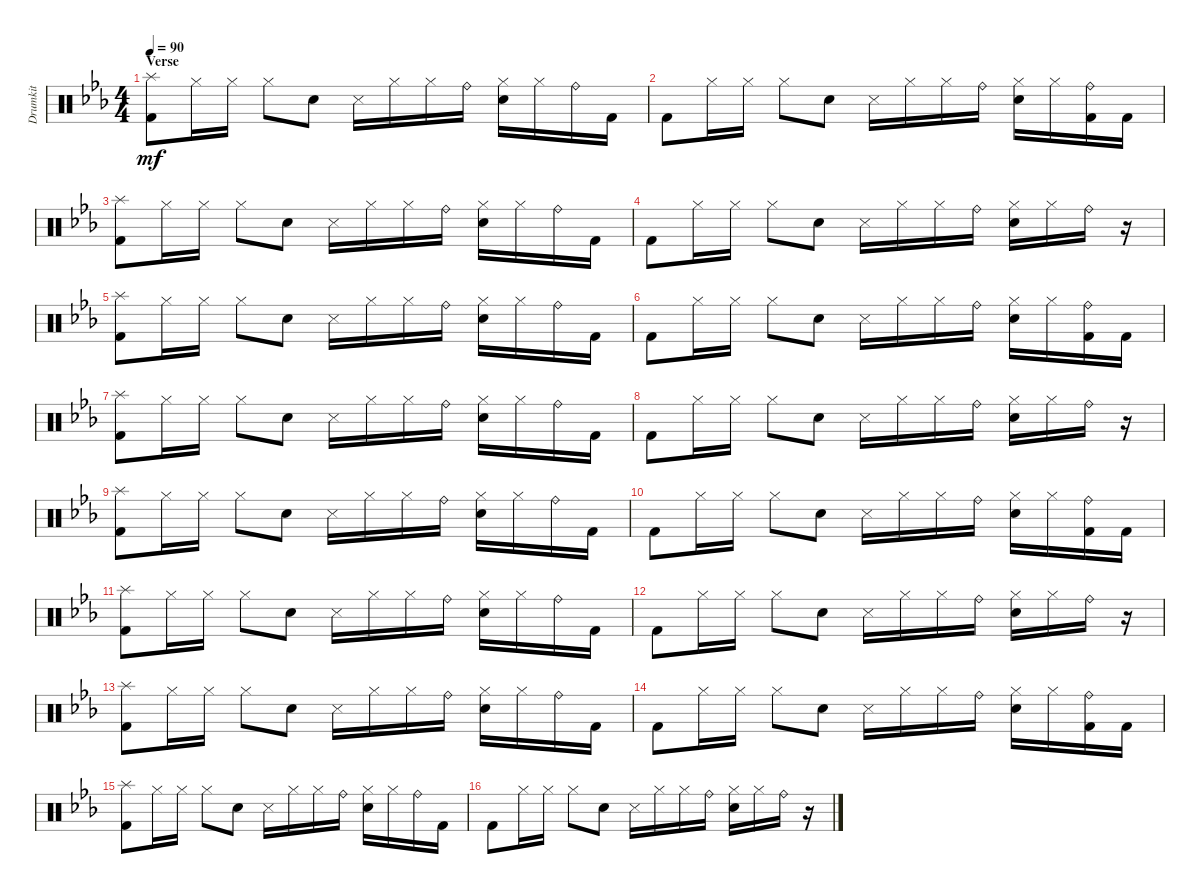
\track ("Drumkit" "Drumkit") {instrument percussion}
\staff {score}
\articulation defaults
\ts (4 4)
\section ("" "Verse")
\tempo 90
\clef neutral
\ks cminor
("Kick (hit) 2" "Splash (hit)").8{dy mf} "Hi-Hat (closed)".16 "Hi-Hat (closed)".16 "Hi-Hat (closed)".8 "Snare (hit) 2".8 "Snare (side stick) 3".16 "Hi-Hat (closed)".16 "Hi-Hat (closed)".16 "Ride (bell)".16 ("Hi-Hat (closed)" "Snare (hit) 2").16 "Hi-Hat (closed)".16 "Ride (bell)".16 "Kick (hit) 2".16 |
"Kick (hit) 2".8 "Hi-Hat (closed)".16 "Hi-Hat (closed)".16 "Hi-Hat (closed)".8 "Snare (hit) 2".8 "Snare (side stick) 3".16 "Hi-Hat (closed)".16 "Hi-Hat (closed)".16 "Ride (bell)".16 ("Hi-Hat (closed)" "Snare (hit) 2").16 "Hi-Hat (closed)".16 ("Ride (bell)" "Kick (hit) 2").16 "Kick (hit) 2".16 |
("Kick (hit) 2" "Splash (hit)").8 "Hi-Hat (closed)".16 "Hi-Hat (closed)".16 "Hi-Hat (closed)".8 "Snare (hit) 2".8 "Snare (side stick) 3".16 "Hi-Hat (closed)".16 "Hi-Hat (closed)".16 "Ride (bell)".16 ("Hi-Hat (closed)" "Snare (hit) 2").16 "Hi-Hat (closed)".16 "Ride (bell)".16 "Kick (hit) 2".16 |
"Kick (hit) 2".8 "Hi-Hat (closed)".16 "Hi-Hat (closed)".16 "Hi-Hat (closed)".8 "Snare (hit) 2".8 "Snare (side stick) 3".16 "Hi-Hat (closed)".16 "Hi-Hat (closed)".16 "Ride (bell)".16 ("Hi-Hat (closed)" "Snare (hit) 2").16 "Hi-Hat (closed)".16 "Ride (bell)".16 r.16 |
("Kick (hit) 2" "Splash (hit)").8 "Hi-Hat (closed)".16 "Hi-Hat (closed)".16 "Hi-Hat (closed)".8 "Snare (hit) 2".8 "Snare (side stick) 3".16 "Hi-Hat (closed)".16 "Hi-Hat (closed)".16 "Ride (bell)".16 ("Hi-Hat (closed)" "Snare (hit) 2").16 "Hi-Hat (closed)".16 "Ride (bell)".16 "Kick (hit) 2".16 |
"Kick (hit) 2".8 "Hi-Hat (closed)".16 "Hi-Hat (closed)".16 "Hi-Hat (closed)".8 "Snare (hit) 2".8 "Snare (side stick) 3".16 "Hi-Hat (closed)".16 "Hi-Hat (closed)".16 "Ride (bell)".16 ("Hi-Hat (closed)" "Snare (hit) 2").16 "Hi-Hat (closed)".16 ("Ride (bell)" "Kick (hit) 2").16 "Kick (hit) 2".16 |
("Kick (hit) 2" "Splash (hit)").8 "Hi-Hat (closed)".16 "Hi-Hat (closed)".16 "Hi-Hat (closed)".8 "Snare (hit) 2".8 "Snare (side stick) 3".16 "Hi-Hat (closed)".16 "Hi-Hat (closed)".16 "Ride (bell)".16 ("Hi-Hat (closed)" "Snare (hit) 2").16 "Hi-Hat (closed)".16 "Ride (bell)".16 "Kick (hit) 2".16 |
"Kick (hit) 2".8 "Hi-Hat (closed)".16 "Hi-Hat (closed)".16 "Hi-Hat (closed)".8 "Snare (hit) 2".8 "Snare (side stick) 3".16 "Hi-Hat (closed)".16 "Hi-Hat (closed)".16 "Ride (bell)".16 ("Hi-Hat (closed)" "Snare (hit) 2").16 "Hi-Hat (closed)".16 "Ride (bell)".16 r.16 |
("Kick (hit) 2" "Splash (hit)").8 "Hi-Hat (closed)".16 "Hi-Hat (closed)".16 "Hi-Hat (closed)".8 "Snare (hit) 2".8 "Snare (side stick) 3".16 "Hi-Hat (closed)".16 "Hi-Hat (closed)".16 "Ride (bell)".16 ("Hi-Hat (closed)" "Snare (hit) 2").16 "Hi-Hat (closed)".16 "Ride (bell)".16 "Kick (hit) 2".16 |
"Kick (hit) 2".8 "Hi-Hat (closed)".16 "Hi-Hat (closed)".16 "Hi-Hat (closed)".8 "Snare (hit) 2".8 "Snare (side stick) 3".16 "Hi-Hat (closed)".16 "Hi-Hat (closed)".16 "Ride (bell)".16 ("Hi-Hat (closed)" "Snare (hit) 2").16 "Hi-Hat (closed)".16 ("Ride (bell)" "Kick (hit) 2").16 "Kick (hit) 2".16 |
("Kick (hit) 2" "Splash (hit)").8 "Hi-Hat (closed)".16 "Hi-Hat (closed)".16 "Hi-Hat (closed)".8 "Snare (hit) 2".8 "Snare (side stick) 3".16 "Hi-Hat (closed)".16 "Hi-Hat (closed)".16 "Ride (bell)".16 ("Hi-Hat (closed)" "Snare (hit) 2").16 "Hi-Hat (closed)".16 "Ride (bell)".16 "Kick (hit) 2".16 |
"Kick (hit) 2".8 "Hi-Hat (closed)".16 "Hi-Hat (closed)".16 "Hi-Hat (closed)".8 "Snare (hit) 2".8 "Snare (side stick) 3".16 "Hi-Hat (closed)".16 "Hi-Hat (closed)".16 "Ride (bell)".16 ("Hi-Hat (closed)" "Snare (hit) 2").16 "Hi-Hat (closed)".16 "Ride (bell)".16 r.16 |
("Kick (hit) 2" "Splash (hit)").8 "Hi-Hat (closed)".16 "Hi-Hat (closed)".16 "Hi-Hat (closed)".8 "Snare (hit) 2".8 "Snare (side stick) 3".16 "Hi-Hat (closed)".16 "Hi-Hat (closed)".16 "Ride (bell)".16 ("Hi-Hat (closed)" "Snare (hit) 2").16 "Hi-Hat (closed)".16 "Ride (bell)".16 "Kick (hit) 2".16 |
"Kick (hit) 2".8 "Hi-Hat (closed)".16 "Hi-Hat (closed)".16 "Hi-Hat (closed)".8 "Snare (hit) 2".8 "Snare (side stick) 3".16 "Hi-Hat (closed)".16 "Hi-Hat (closed)".16 "Ride (bell)".16 ("Hi-Hat (closed)" "Snare (hit) 2").16 "Hi-Hat (closed)".16 ("Ride (bell)" "Kick (hit) 2").16 "Kick (hit) 2".16 |
("Kick (hit) 2" "Splash (hit)").8 "Hi-Hat (closed)".16 "Hi-Hat (closed)".16 "Hi-Hat (closed)".8 "Snare (hit) 2".8 "Snare (side stick) 3".16 "Hi-Hat (closed)".16 "Hi-Hat (closed)".16 "Ride (bell)".16 ("Hi-Hat (closed)" "Snare (hit) 2").16 "Hi-Hat (closed)".16 "Ride (bell)".16 "Kick (hit) 2".16 |
"Kick (hit) 2".8 "Hi-Hat (closed)".16 "Hi-Hat (closed)".16 "Hi-Hat (closed)".8 "Snare (hit) 2".8 "Snare (side stick) 3".16 "Hi-Hat (closed)".16 "Hi-Hat (closed)".16 "Ride (bell)".16 ("Hi-Hat (closed)" "Snare (hit) 2").16 "Hi-Hat (closed)".16 "Ride (bell)".16 r.16
